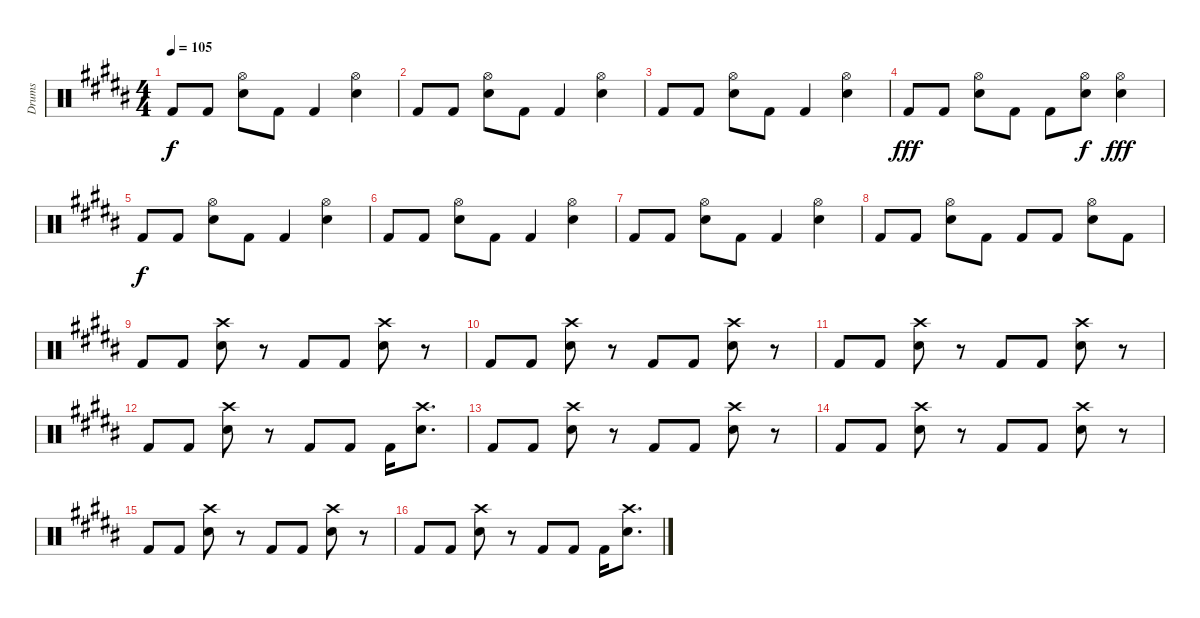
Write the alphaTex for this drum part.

\track ("Drums" "Drums") {instrument percussion}
\staff {score}
\articulation defaults
\ts (4 4)
\tempo 105
\clef neutral
\ks b "Kick (hit) 2".8{dy f} "Kick (hit) 2".8
("Hi-Hat (open)" "Electric Snare (hit)").8 "Kick (hit) 2".8 "Kick (hit) 2".4 ("Hi-Hat (open)" "Electric Snare (hit)").4 |
"Kick (hit) 2".8 "Kick (hit) 2".8 ("Hi-Hat (open)" "Electric Snare (hit)").8 "Kick (hit) 2".8 "Kick (hit) 2".4 ("Hi-Hat (open)" "Electric Snare (hit)").4 |
"Kick (hit) 2".8 "Kick (hit) 2".8 ("Hi-Hat (open)" "Electric Snare (hit)").8 "Kick (hit) 2".8 "Kick (hit) 2".4 ("Hi-Hat (open)" "Electric Snare (hit)").4 |
"Kick (hit) 2".8{dy fff} "Kick (hit) 2".8 ("Hi-Hat (open)" "Electric Snare (hit)").8 "Kick (hit) 2".8 "Kick (hit) 2".8 ("Hi-Hat (open)" "Electric Snare (hit)").8{dy f} ("Hi-Hat (open)" "Electric Snare (hit)").4{dy fff} |
"Kick (hit) 2".8{dy f} "Kick (hit) 2".8 ("Hi-Hat (open)" "Electric Snare (hit)").8 "Kick (hit) 2".8 "Kick (hit) 2".4 ("Hi-Hat (open)" "Electric Snare (hit)").4 |
"Kick (hit) 2".8 "Kick (hit) 2".8 ("Hi-Hat (open)" "Electric Snare (hit)").8 "Kick (hit) 2".8 "Kick (hit) 2".4 ("Hi-Hat (open)" "Electric Snare (hit)").4 |
"Kick (hit) 2".8 "Kick (hit) 2".8 ("Hi-Hat (open)" "Electric Snare (hit)").8 "Kick (hit) 2".8 "Kick (hit) 2".4 ("Hi-Hat (open)" "Electric Snare (hit)").4 |
"Kick (hit) 2".8 "Kick (hit) 2".8 ("Hi-Hat (open)" "Electric Snare (hit)").8 "Kick (hit) 2".8 "Kick (hit) 2".8 "Kick (hit) 2".8 ("Hi-Hat (open)" "Electric Snare (hit)").8 "Kick (hit) 2".8 |
"Kick (hit) 2".8 "Kick (hit) 2".8 ("Crash high (hit)" "Electric Snare (hit)").8 r.8 "Kick (hit) 2".8 "Kick (hit) 2".8 ("Crash high (hit)" "Electric Snare (hit)").8 r.8 |
"Kick (hit) 2".8 "Kick (hit) 2".8 ("Crash high (hit)" "Electric Snare (hit)").8 r.8 "Kick (hit) 2".8 "Kick (hit) 2".8 ("Crash high (hit)" "Electric Snare (hit)").8 r.8 |
"Kick (hit) 2".8 "Kick (hit) 2".8 ("Crash high (hit)" "Electric Snare (hit)").8 r.8 "Kick (hit) 2".8 "Kick (hit) 2".8 ("Crash high (hit)" "Electric Snare (hit)").8 r.8 |
"Kick (hit) 2".8 "Kick (hit) 2".8 ("Crash high (hit)" "Electric Snare (hit)").8 r.8 "Kick (hit) 2".8 "Kick (hit) 2".8 "Kick (hit) 2".16 ("Crash high (hit)" "Electric Snare (hit)").8{d} |
"Kick (hit) 2".8 "Kick (hit) 2".8 ("Crash high (hit)" "Electric Snare (hit)").8 r.8 "Kick (hit) 2".8 "Kick (hit) 2".8 ("Crash high (hit)" "Electric Snare (hit)").8 r.8 |
"Kick (hit) 2".8 "Kick (hit) 2".8 ("Crash high (hit)" "Electric Snare (hit)").8 r.8 "Kick (hit) 2".8 "Kick (hit) 2".8 ("Crash high (hit)" "Electric Snare (hit)").8 r.8 |
"Kick (hit) 2".8 "Kick (hit) 2".8 ("Crash high (hit)" "Electric Snare (hit)").8 r.8 "Kick (hit) 2".8 "Kick (hit) 2".8 ("Crash high (hit)" "Electric Snare (hit)").8 r.8 |
"Kick (hit) 2".8 "Kick (hit) 2".8 ("Crash high (hit)" "Electric Snare (hit)").8 r.8 "Kick (hit) 2".8 "Kick (hit) 2".8 "Kick (hit) 2".16 ("Crash high (hit)" "Electric Snare (hit)").8{d}
